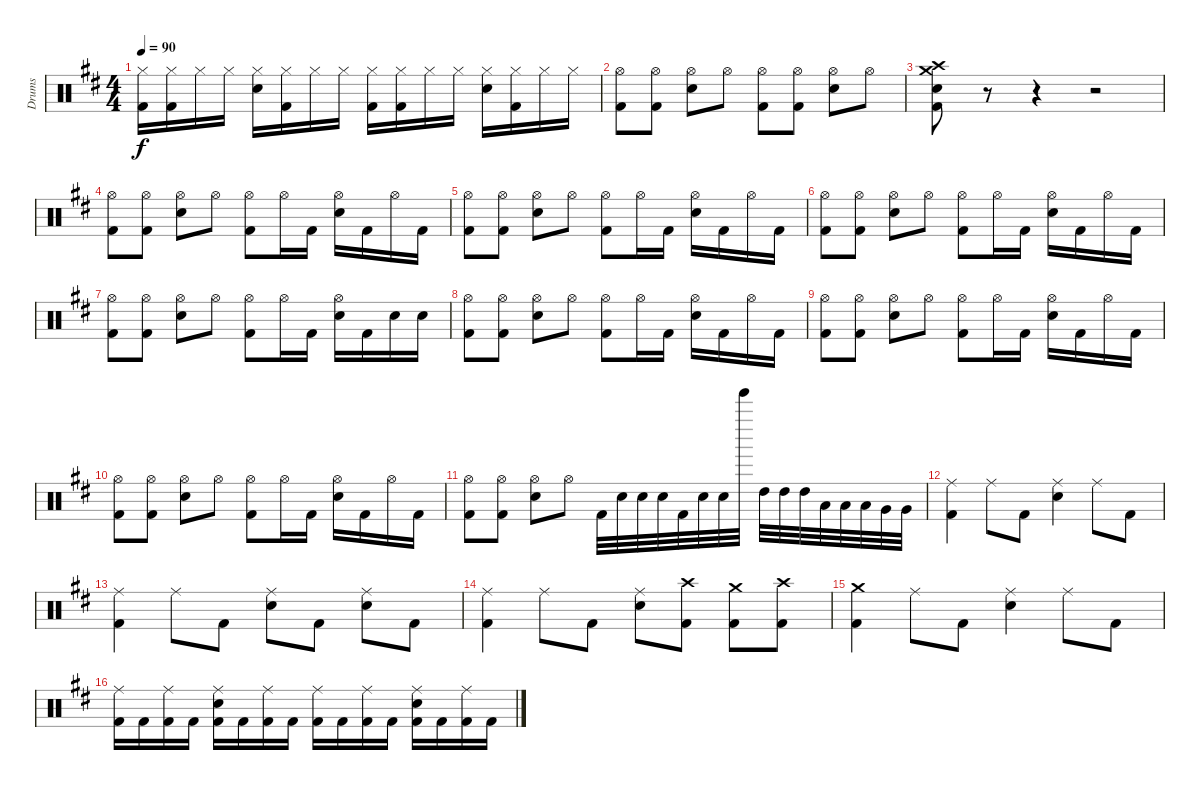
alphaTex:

\track ("Drums" "Drums") {instrument percussion}
\staff {score}
\articulation defaults
\ts (4 4)
\tempo 90
\clef neutral
\ks bminor
("Hi-Hat (closed)" "Kick (hit) 2").16{dy f} ("Hi-Hat (closed)" "Kick (hit) 2").16 "Hi-Hat (closed)".16 "Hi-Hat (closed)".16 ("Hi-Hat (closed)" "Snare (hit) 2").16 ("Hi-Hat (closed)" "Kick (hit) 2").16 "Hi-Hat (closed)".16 "Hi-Hat (closed)".16 ("Hi-Hat (closed)" "Kick (hit) 2").16 ("Hi-Hat (closed)" "Kick (hit) 2").16 "Hi-Hat (closed)".16 "Hi-Hat (closed)".16 ("Hi-Hat (closed)" "Snare (hit) 2").16 ("Hi-Hat (closed)" "Kick (hit) 2").16 "Hi-Hat (closed)".16 "Hi-Hat (closed)".16 |
("Hi-Hat (open)" "Kick (hit) 2").8 ("Hi-Hat (open)" "Kick (hit) 2").8 ("Hi-Hat (open)" "Snare (hit) 2").8 "Hi-Hat (open)".8 ("Hi-Hat (open)" "Kick (hit) 2").8 ("Hi-Hat (open)" "Kick (hit) 2").8 ("Hi-Hat (open)" "Snare (hit) 2").8 "Hi-Hat (open)".8 |
("Crash medium (hit)" "Crash high (hit)" "Snare (hit) 2" "Kick (hit) 2").8 r.8 r.4 r.2 |
("Hi-Hat (open)" "Kick (hit) 2").8 ("Hi-Hat (open)" "Kick (hit) 2").8 ("Hi-Hat (open)" "Snare (hit) 2").8 "Hi-Hat (open)".8 ("Hi-Hat (open)" "Kick (hit) 2").8 "Hi-Hat (open)".16 "Kick (hit) 2".16 ("Hi-Hat (open)" "Snare (hit) 2").16 "Kick (hit) 2".16 "Hi-Hat (open)".16 "Kick (hit) 2".16 |
("Hi-Hat (open)" "Kick (hit) 2").8 ("Hi-Hat (open)" "Kick (hit) 2").8 ("Hi-Hat (open)" "Snare (hit) 2").8 "Hi-Hat (open)".8 ("Hi-Hat (open)" "Kick (hit) 2").8 "Hi-Hat (open)".16 "Kick (hit) 2".16 ("Hi-Hat (open)" "Snare (hit) 2").16 "Kick (hit) 2".16 "Hi-Hat (open)".16 "Kick (hit) 2".16 |
("Hi-Hat (open)" "Kick (hit) 2").8 ("Hi-Hat (open)" "Kick (hit) 2").8 ("Hi-Hat (open)" "Snare (hit) 2").8 "Hi-Hat (open)".8 ("Hi-Hat (open)" "Kick (hit) 2").8 "Hi-Hat (open)".16 "Kick (hit) 2".16 ("Hi-Hat (open)" "Snare (hit) 2").16 "Kick (hit) 2".16 "Hi-Hat (open)".16 "Kick (hit) 2".16 |
("Hi-Hat (open)" "Kick (hit) 2").8 ("Hi-Hat (open)" "Kick (hit) 2").8 ("Hi-Hat (open)" "Snare (hit) 2").8 "Hi-Hat (open)".8 ("Hi-Hat (open)" "Kick (hit) 2").8 "Hi-Hat (open)".16 "Kick (hit) 2".16 ("Hi-Hat (open)" "Snare (hit) 2").16 "Kick (hit) 2".16 "Snare (hit) 2".16 "Snare (hit) 2".16 |
("Hi-Hat (open)" "Kick (hit) 2").8 ("Hi-Hat (open)" "Kick (hit) 2").8 ("Hi-Hat (open)" "Snare (hit) 2").8 "Hi-Hat (open)".8 ("Hi-Hat (open)" "Kick (hit) 2").8 "Hi-Hat (open)".16 "Kick (hit) 2".16 ("Hi-Hat (open)" "Snare (hit) 2").16 "Kick (hit) 2".16 "Hi-Hat (open)".16 "Kick (hit) 2".16 |
("Hi-Hat (open)" "Kick (hit) 2").8 ("Hi-Hat (open)" "Kick (hit) 2").8 ("Hi-Hat (open)" "Snare (hit) 2").8 "Hi-Hat (open)".8 ("Hi-Hat (open)" "Kick (hit) 2").8 "Hi-Hat (open)".16 "Kick (hit) 2".16 ("Hi-Hat (open)" "Snare (hit) 2").16 "Kick (hit) 2".16 "Hi-Hat (open)".16 "Kick (hit) 2".16 |
("Hi-Hat (open)" "Kick (hit) 2").8 ("Hi-Hat (open)" "Kick (hit) 2").8 ("Hi-Hat (open)" "Snare (hit) 2").8 "Hi-Hat (open)".8 ("Hi-Hat (open)" "Kick (hit) 2").8 "Hi-Hat (open)".16 "Kick (hit) 2".16 ("Hi-Hat (open)" "Snare (hit) 2").16 "Kick (hit) 2".16 "Hi-Hat (open)".16 "Kick (hit) 2".16 |
("Hi-Hat (open)" "Kick (hit) 2").8 ("Hi-Hat (open)" "Kick (hit) 2").8 ("Hi-Hat (open)" "Snare (hit) 2").8 "Hi-Hat (open)".8 "Kick (hit) 2".32 "Snare (hit) 2".32 "Snare (hit) 2".32 "Snare (hit) 2".32 "Kick (hit) 2".32 "Snare (hit) 2".32 "Snare (hit) 2".32 "Tinkle Bell (hit)".32 "High Tom (hit)".32 "High Tom (hit)".32 "High Tom (hit)".32 "Low Tom (hit)".32 "Low Tom (hit)".32 "Low Tom (hit)".32 "Very Low Tom (hit)".32 "Very Low Tom (hit)".32 |
("Ride (middle)" "Kick (hit) 2").4 "Ride (middle)".8 "Kick (hit) 2".8 ("Ride (middle)" "Snare (hit) 2").4 "Ride (middle)".8 "Kick (hit) 2".8 |
("Ride (middle)" "Kick (hit) 2").4 "Ride (middle)".8 "Kick (hit) 2".8 ("Ride (middle)" "Snare (hit) 2").8 "Kick (hit) 2".8 ("Ride (middle)" "Snare (hit) 2").8 "Kick (hit) 2".8 |
("Ride (middle)" "Kick (hit) 2").4 "Ride (middle)".8 "Kick (hit) 2".8 ("Ride (middle)" "Snare (hit) 2").8 ("Crash high (hit)" "Kick (hit) 2").8 ("Crash medium (hit)" "Kick (hit) 2").8 ("Crash high (hit)" "Kick (hit) 2").8 |
("Crash medium (hit)" "Kick (hit) 2").4 "Ride (middle)".8 "Kick (hit) 2".8 ("Ride (middle)" "Snare (hit) 2").4 "Ride (middle)".8 "Kick (hit) 2".8 |
("Ride (middle)" "Kick (hit) 2").16 "Kick (hit) 2".16 ("Ride (middle)" "Kick (hit) 2").16 "Kick (hit) 2".16 ("Ride (middle)" "Snare (hit) 2" "Kick (hit) 2").16 "Kick (hit) 2".16 ("Ride (middle)" "Kick (hit) 2").16 "Kick (hit) 2".16 ("Ride (middle)" "Kick (hit) 2").16 "Kick (hit) 2".16 ("Ride (middle)" "Kick (hit) 2").16 "Kick (hit) 2".16 ("Ride (middle)" "Snare (hit) 2" "Kick (hit) 2").16 "Kick (hit) 2".16 ("Ride (middle)" "Kick (hit) 2").16 "Kick (hit) 2".16
